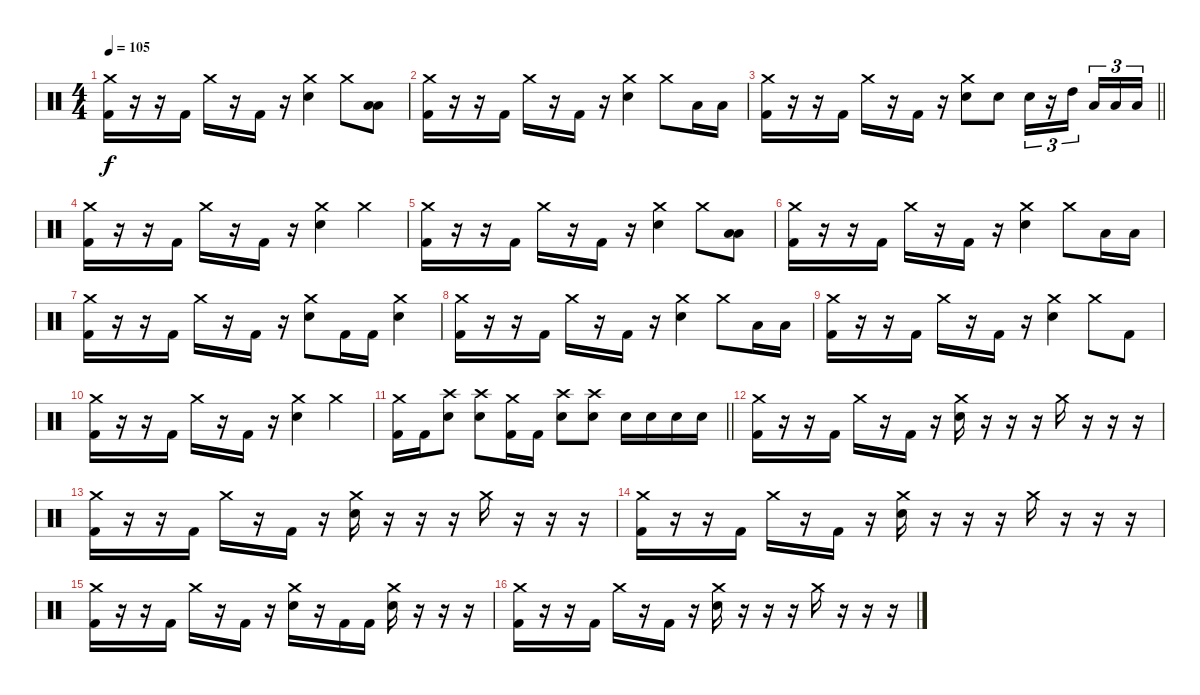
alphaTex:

\track "" {instrument percussion}
\staff {score}
\articulation defaults
\ts (4 4)
\tempo 105
\clef neutral
\ks c
("Crash medium (hit)" "Kick (hit) 2").16{dy f} r.16 r.16 "Kick (hit) 2".16 "Crash medium (hit)".16 r.16 "Kick (hit) 2".16 r.16 ("Crash medium (hit)" "Snare (hit) 2").4 "Crash medium (hit)".8 ("Low Tom (hit)" "Low Floor Tom (hit)").8 |
("Crash medium (hit)" "Kick (hit) 2").16 r.16 r.16 "Kick (hit) 2".16 "Crash medium (hit)".16 r.16 "Kick (hit) 2".16 r.16 ("Crash medium (hit)" "Snare (hit) 2").4 "Crash medium (hit)".8 "Low Tom (hit)".16 "Low Tom (hit)".16 |
\barLineRight lightlight
("Crash medium (hit)" "Kick (hit) 2").16 r.16 r.16 "Kick (hit) 2".16 "Crash medium (hit)".16 r.16 "Kick (hit) 2".16 r.16 ("Crash medium (hit)" "Snare (hit) 2").8 "Snare (hit) 2".8 "Snare (hit) 2".16{tu (3 2)} r.16{tu (3 2)} "High Tom (hit)".16{tu (3 2) beam splitsecondary} "Low Tom (hit)".16{tu (3 2)} "Low Floor Tom (hit)".16{tu (3 2)} "Low Floor Tom (hit)".16{tu (3 2)} |
("Crash medium (hit)" "Kick (hit) 2").16 r.16 r.16 "Kick (hit) 2".16 "Crash medium (hit)".16 r.16 "Kick (hit) 2".16 r.16 ("Crash medium (hit)" "Snare (hit) 2").4 "Crash medium (hit)".4 |
("Crash medium (hit)" "Kick (hit) 2").16 r.16 r.16 "Kick (hit) 2".16 "Crash medium (hit)".16 r.16 "Kick (hit) 2".16 r.16 ("Crash medium (hit)" "Snare (hit) 2").4 "Crash medium (hit)".8 ("Low Tom (hit)" "Low Floor Tom (hit)").8 |
("Crash medium (hit)" "Kick (hit) 2").16 r.16 r.16 "Kick (hit) 2".16 "Crash medium (hit)".16 r.16 "Kick (hit) 2".16 r.16 ("Crash medium (hit)" "Snare (hit) 2").4 "Crash medium (hit)".8 "Low Tom (hit)".16 "Low Floor Tom (hit)".16 |
("Crash medium (hit)" "Kick (hit) 2").16 r.16 r.16 "Kick (hit) 2".16 "Crash medium (hit)".16 r.16 "Kick (hit) 2".16 r.16 ("Crash medium (hit)" "Snare (hit) 2").8 "Kick (hit) 2".16 "Kick (hit) 2".16 ("Crash medium (hit)" "Snare (hit) 2").4 |
("Crash medium (hit)" "Kick (hit) 2").16 r.16 r.16 "Kick (hit) 2".16 "Crash medium (hit)".16 r.16 "Kick (hit) 2".16 r.16 ("Crash medium (hit)" "Snare (hit) 2").4 "Crash medium (hit)".8 "Low Tom (hit)".16 "Low Floor Tom (hit)".16 |
("Crash medium (hit)" "Kick (hit) 2").16 r.16 r.16 "Kick (hit) 2".16 "Crash medium (hit)".16 r.16 "Kick (hit) 2".16 r.16 ("Crash medium (hit)" "Snare (hit) 2").4 "Crash medium (hit)".8 "Kick (hit) 2".8 |
("Crash medium (hit)" "Kick (hit) 2").16 r.16 r.16 "Kick (hit) 2".16 "Crash medium (hit)".16 r.16 "Kick (hit) 2".16 r.16 ("Crash medium (hit)" "Snare (hit) 2").4 "Crash medium (hit)".4 |
\barLineRight lightlight
("Crash medium (hit)" "Kick (hit) 2").16 "Kick (hit) 2".16 ("Crash high (hit)" "Snare (hit) 2").8 ("Crash high (hit)" "Snare (hit) 2").8 ("Crash medium (hit)" "Kick (hit) 2").16 "Kick (hit) 2".16 ("Crash high (hit)" "Snare (hit) 2").8 ("Crash high (hit)" "Snare (hit) 2").8 "Snare (hit) 2".16 "Snare (hit) 2".16 "Snare (hit) 2".16 "Snare (hit) 2".16 |
\section ("" "")
("Crash medium (hit)" "Kick (hit) 2").16 r.16 r.16 "Kick (hit) 2".16 "Crash medium (hit)".16 r.16 "Kick (hit) 2".16 r.16 ("Crash medium (hit)" "Snare (hit) 2").16 r.16 r.16 r.16 "Crash medium (hit)".16 r.16 r.16 r.16 |
("Crash medium (hit)" "Kick (hit) 2").16 r.16 r.16 "Kick (hit) 2".16 "Crash medium (hit)".16 r.16 "Kick (hit) 2".16 r.16 ("Crash medium (hit)" "Snare (hit) 2").16 r.16 r.16 r.16 "Crash medium (hit)".16 r.16 r.16 r.16 |
("Crash medium (hit)" "Kick (hit) 2").16 r.16 r.16 "Kick (hit) 2".16 "Crash medium (hit)".16 r.16 "Kick (hit) 2".16 r.16 ("Crash medium (hit)" "Snare (hit) 2").16 r.16 r.16 r.16 "Crash medium (hit)".16 r.16 r.16 r.16 |
("Crash medium (hit)" "Kick (hit) 2").16 r.16 r.16 "Kick (hit) 2".16 "Crash medium (hit)".16 r.16 "Kick (hit) 2".16 r.16 ("Crash medium (hit)" "Snare (hit) 2").16 r.16 "Kick (hit) 2".16 "Kick (hit) 2".16 ("Crash medium (hit)" "Snare (hit) 2").16 r.16 r.16 r.16 |
("Crash medium (hit)" "Kick (hit) 2").16 r.16 r.16 "Kick (hit) 2".16 "Crash medium (hit)".16 r.16 "Kick (hit) 2".16 r.16 ("Crash medium (hit)" "Snare (hit) 2").16 r.16 r.16 r.16 "Crash medium (hit)".16 r.16 r.16 r.16
